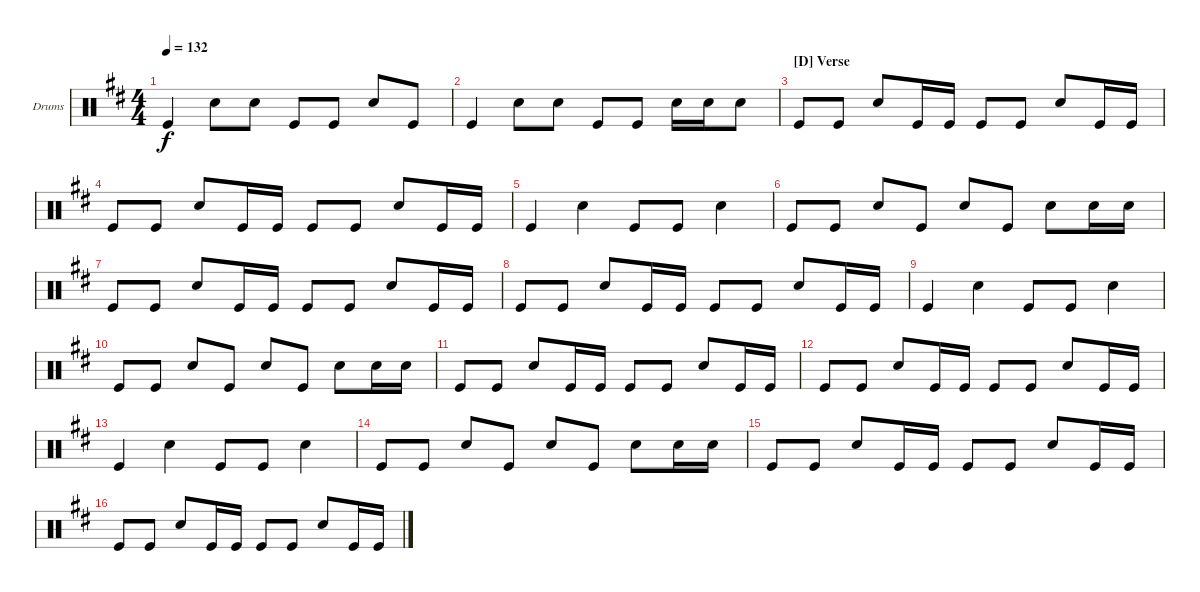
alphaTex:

\defaultSystemsLayout 4
\bracketExtendMode groupsimilarinstruments
\firstSystemTrackNameOrientation horizontal
\otherSystemsTrackNameOrientation horizontal
\track ("Drumkit" "Drums") {instrument percussion}
\staff {score}
\articulation defaults
\ts (4 4)
\tempo 132
\clef neutral
\scale
1.05044
\ks d "Kick (hit)".4{dy f} "Snare (hit) 2".8 "Snare (hit) 2".8 "Kick (hit)".8 "Kick (hit)".8 "Snare (hit) 2".8 "Kick (hit)".8
|
\scale
0.949559 "Kick (hit)".4 "Snare (hit) 2".8 "Snare (hit) 2".8 "Kick (hit)".8 "Kick (hit)".8 "Snare (hit) 2".16 "Snare (hit) 2".16 "Snare (hit) 2".8 |
\section ("D" "Verse")
\scale
1.05044 "Kick (hit)".8 "Kick (hit)".8 "Snare (hit) 2".8 "Kick (hit)".16 "Kick (hit)".16 "Kick (hit)".8 "Kick (hit)".8 "Snare (hit) 2".8 "Kick (hit)".16 "Kick (hit)".16 |
\scale
0.949559 "Kick (hit)".8 "Kick (hit)".8 "Snare (hit) 2".8 "Kick (hit)".16 "Kick (hit)".16 "Kick (hit)".8 "Kick (hit)".8 "Snare (hit) 2".8 "Kick (hit)".16 "Kick (hit)".16 |
\scale
1.05044 "Kick (hit)".4 "Snare (hit) 2".4 "Kick (hit)".8 "Kick (hit)".8 "Snare (hit) 2".4 |
\scale
0.949559 "Kick (hit)".8 "Kick (hit)".8 "Snare (hit) 2".8 "Kick (hit)".8 "Snare (hit) 2".8 "Kick (hit)".8 "Snare (hit) 2".8 "Snare (hit) 2".16 "Snare (hit) 2".16 |
\scale
1.05044 "Kick (hit)".8 "Kick (hit)".8 "Snare (hit) 2".8 "Kick (hit)".16 "Kick (hit)".16 "Kick (hit)".8 "Kick (hit)".8 "Snare (hit) 2".8 "Kick (hit)".16 "Kick (hit)".16 |
\scale
0.949559 "Kick (hit)".8 "Kick (hit)".8 "Snare (hit) 2".8 "Kick (hit)".16 "Kick (hit)".16 "Kick (hit)".8 "Kick (hit)".8 "Snare (hit) 2".8 "Kick (hit)".16 "Kick (hit)".16 |
\scale
1.05044 "Kick (hit)".4 "Snare (hit) 2".4 "Kick (hit)".8 "Kick (hit)".8 "Snare (hit) 2".4 |
\scale
0.949559 "Kick (hit)".8 "Kick (hit)".8 "Snare (hit) 2".8 "Kick (hit)".8 "Snare (hit) 2".8 "Kick (hit)".8 "Snare (hit) 2".8 "Snare (hit) 2".16 "Snare (hit) 2".16 |
\scale
1.05044 "Kick (hit)".8 "Kick (hit)".8 "Snare (hit) 2".8 "Kick (hit)".16 "Kick (hit)".16 "Kick (hit)".8 "Kick (hit)".8 "Snare (hit) 2".8 "Kick (hit)".16 "Kick (hit)".16 |
\scale
0.949559 "Kick (hit)".8 "Kick (hit)".8 "Snare (hit) 2".8 "Kick (hit)".16 "Kick (hit)".16 "Kick (hit)".8 "Kick (hit)".8 "Snare (hit) 2".8 "Kick (hit)".16 "Kick (hit)".16 |
\scale
1.05044 "Kick (hit)".4 "Snare (hit) 2".4 "Kick (hit)".8 "Kick (hit)".8 "Snare (hit) 2".4 |
\scale
0.949559 "Kick (hit)".8 "Kick (hit)".8 "Snare (hit) 2".8 "Kick (hit)".8 "Snare (hit) 2".8 "Kick (hit)".8 "Snare (hit) 2".8 "Snare (hit) 2".16 "Snare (hit) 2".16 |
\scale
1.05044 "Kick (hit)".8 "Kick (hit)".8 "Snare (hit) 2".8 "Kick (hit)".16 "Kick (hit)".16 "Kick (hit)".8 "Kick (hit)".8 "Snare (hit) 2".8 "Kick (hit)".16 "Kick (hit)".16 |
\scale
0.949559 "Kick (hit)".8 "Kick (hit)".8 "Snare (hit) 2".8 "Kick (hit)".16 "Kick (hit)".16 "Kick (hit)".8 "Kick (hit)".8 "Snare (hit) 2".8 "Kick (hit)".16 "Kick (hit)".16
